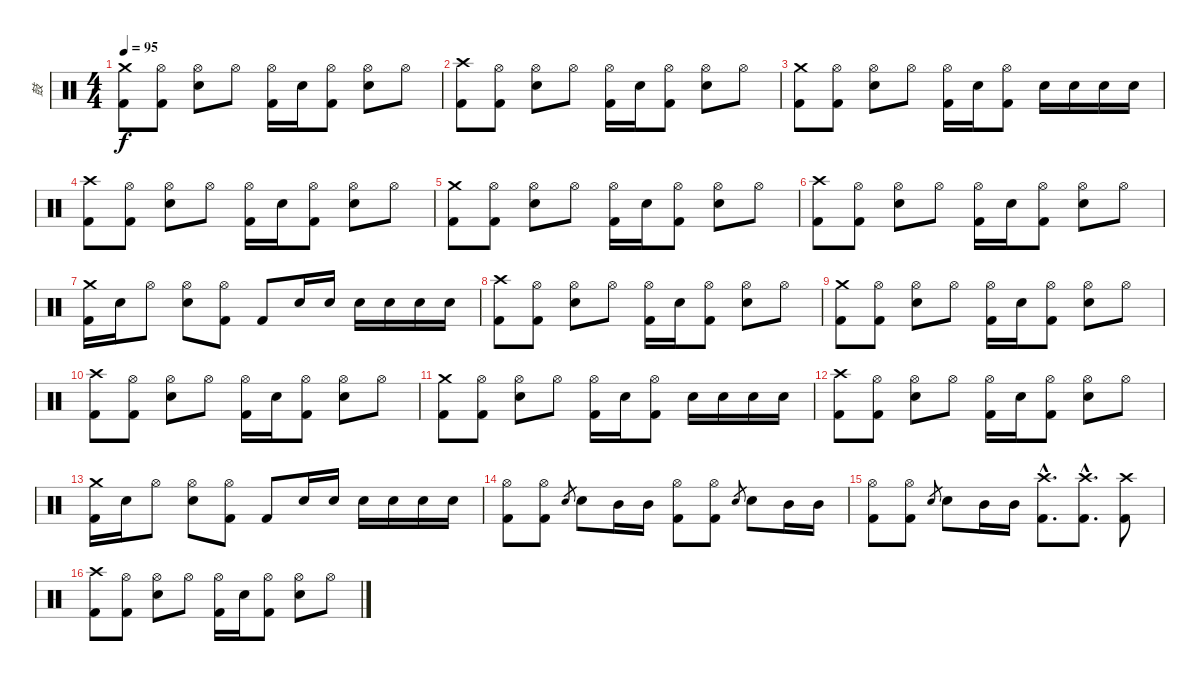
\track ("鼓" "鼓") {instrument percussion}
\staff {score}
\articulation defaults
\ts (4 4)
\tempo 95
\clef neutral
\ks c
("Crash medium (hit)" "Kick (hit) 2").8{dy f} ("Hi-Hat (open)" "Kick (hit) 2").8 ("Hi-Hat (open)" "Snare (hit) 2").8 "Hi-Hat (open)".8 ("Hi-Hat (open)" "Kick (hit) 2").16 "Snare (hit) 2".16 ("Hi-Hat (open)" "Kick (hit) 2").8 ("Hi-Hat (open)" "Snare (hit) 2").8 "Hi-Hat (open)".8 |
("Crash high (hit)" "Kick (hit) 2").8 ("Hi-Hat (open)" "Kick (hit) 2").8 ("Hi-Hat (open)" "Snare (hit) 2").8 "Hi-Hat (open)".8 ("Hi-Hat (open)" "Kick (hit) 2").16 "Snare (hit) 2".16 ("Hi-Hat (open)" "Kick (hit) 2").8 ("Hi-Hat (open)" "Snare (hit) 2").8 "Hi-Hat (open)".8 |
("Crash medium (hit)" "Kick (hit) 2").8 ("Hi-Hat (open)" "Kick (hit) 2").8 ("Hi-Hat (open)" "Snare (hit) 2").8 "Hi-Hat (open)".8 ("Hi-Hat (open)" "Kick (hit) 2").16 "Snare (hit) 2".16 ("Hi-Hat (open)" "Kick (hit) 2").8 "Snare (hit) 2".16 "Snare (hit) 2".16 "Snare (hit) 2".16 "Snare (hit) 2".16 |
("Crash high (hit)" "Kick (hit) 2").8 ("Hi-Hat (open)" "Kick (hit) 2").8 ("Hi-Hat (open)" "Snare (hit) 2").8 "Hi-Hat (open)".8 ("Hi-Hat (open)" "Kick (hit) 2").16 "Snare (hit) 2".16 ("Hi-Hat (open)" "Kick (hit) 2").8 ("Hi-Hat (open)" "Snare (hit) 2").8 "Hi-Hat (open)".8 |
("Crash medium (hit)" "Kick (hit) 2").8 ("Hi-Hat (open)" "Kick (hit) 2").8 ("Hi-Hat (open)" "Snare (hit) 2").8 "Hi-Hat (open)".8 ("Hi-Hat (open)" "Kick (hit) 2").16 "Snare (hit) 2".16 ("Hi-Hat (open)" "Kick (hit) 2").8 ("Hi-Hat (open)" "Snare (hit) 2").8 "Hi-Hat (open)".8 |
("Crash high (hit)" "Kick (hit) 2").8 ("Hi-Hat (open)" "Kick (hit) 2").8 ("Hi-Hat (open)" "Snare (hit) 2").8 "Hi-Hat (open)".8 ("Hi-Hat (open)" "Kick (hit) 2").16 "Snare (hit) 2".16 ("Hi-Hat (open)" "Kick (hit) 2").8 ("Hi-Hat (open)" "Snare (hit) 2").8 "Hi-Hat (open)".8 |
("Crash medium (hit)" "Kick (hit) 2").16 "Snare (hit) 2".16 "Hi-Hat (open)".8 ("Hi-Hat (open)" "Snare (hit) 2").8 ("Hi-Hat (open)" "Kick (hit) 2").8 "Kick (hit) 2".8 "Snare (hit) 2".16 "Snare (hit) 2".16 "Snare (hit) 2".16 "Snare (hit) 2".16 "Snare (hit) 2".16 "Snare (hit) 2".16 |
("Crash high (hit)" "Kick (hit) 2").8 ("Hi-Hat (open)" "Kick (hit) 2").8 ("Hi-Hat (open)" "Snare (hit) 2").8 "Hi-Hat (open)".8 ("Hi-Hat (open)" "Kick (hit) 2").16 "Snare (hit) 2".16 ("Hi-Hat (open)" "Kick (hit) 2").8 ("Hi-Hat (open)" "Snare (hit) 2").8 "Hi-Hat (open)".8 |
("Crash medium (hit)" "Kick (hit) 2").8 ("Hi-Hat (open)" "Kick (hit) 2").8 ("Hi-Hat (open)" "Snare (hit) 2").8 "Hi-Hat (open)".8 ("Hi-Hat (open)" "Kick (hit) 2").16 "Snare (hit) 2".16 ("Hi-Hat (open)" "Kick (hit) 2").8 ("Hi-Hat (open)" "Snare (hit) 2").8 "Hi-Hat (open)".8 |
("Crash high (hit)" "Kick (hit) 2").8 ("Hi-Hat (open)" "Kick (hit) 2").8 ("Hi-Hat (open)" "Snare (hit) 2").8 "Hi-Hat (open)".8 ("Hi-Hat (open)" "Kick (hit) 2").16 "Snare (hit) 2".16 ("Hi-Hat (open)" "Kick (hit) 2").8 ("Hi-Hat (open)" "Snare (hit) 2").8 "Hi-Hat (open)".8 |
("Crash medium (hit)" "Kick (hit) 2").8 ("Hi-Hat (open)" "Kick (hit) 2").8 ("Hi-Hat (open)" "Snare (hit) 2").8 "Hi-Hat (open)".8 ("Hi-Hat (open)" "Kick (hit) 2").16 "Snare (hit) 2".16 ("Hi-Hat (open)" "Kick (hit) 2").8 "Snare (hit) 2".16 "Snare (hit) 2".16 "Snare (hit) 2".16 "Snare (hit) 2".16 |
("Crash high (hit)" "Kick (hit) 2").8 ("Hi-Hat (open)" "Kick (hit) 2").8 ("Hi-Hat (open)" "Snare (hit) 2").8 "Hi-Hat (open)".8 ("Hi-Hat (open)" "Kick (hit) 2").16 "Snare (hit) 2".16 ("Hi-Hat (open)" "Kick (hit) 2").8 ("Hi-Hat (open)" "Snare (hit) 2").8 "Hi-Hat (open)".8 |
("Crash medium (hit)" "Kick (hit) 2").16 "Snare (hit) 2".16 "Hi-Hat (open)".8 ("Hi-Hat (open)" "Snare (hit) 2").8 ("Hi-Hat (open)" "Kick (hit) 2").8 "Kick (hit) 2".8 "Snare (hit) 2".16 "Snare (hit) 2".16 "Snare (hit) 2".16 "Snare (hit) 2".16 "Snare (hit) 2".16 "Snare (hit) 2".16 |
("Hi-Hat (open)" "Kick (hit) 2").8 ("Hi-Hat (open)" "Kick (hit) 2").8 "Snare (hit) 2".8{gr} "Snare (hit) 2".8 "Mid Tom (hit)".16 "Mid Tom (hit)".16 ("Hi-Hat (open)" "Kick (hit) 2").8 ("Hi-Hat (open)" "Kick (hit) 2").8 "Snare (hit) 2".8{gr} "Snare (hit) 2".8 "Mid Tom (hit)".16 "Mid Tom (hit)".16 |
("Hi-Hat (open)" "Kick (hit) 2").8 ("Hi-Hat (open)" "Kick (hit) 2").8 "Snare (hit) 2".8{gr} "Snare (hit) 2".8 "Mid Tom (hit)".16 "Mid Tom (hit)".16 ("Crash high (hit)"{hac} "Kick (hit) 2"{hac}).8{d} ("Crash high (hit)"{hac} "Kick (hit) 2"{hac}).8{d} ("Crash high (hit)" "Kick (hit) 2").8 |
("Crash high (hit)" "Kick (hit) 2").8 ("Hi-Hat (open)" "Kick (hit) 2").8 ("Hi-Hat (open)" "Snare (hit) 2").8 "Hi-Hat (open)".8 ("Hi-Hat (open)" "Kick (hit) 2").16 "Snare (hit) 2".16 ("Hi-Hat (open)" "Kick (hit) 2").8 ("Hi-Hat (open)" "Snare (hit) 2").8 "Hi-Hat (open)".8
